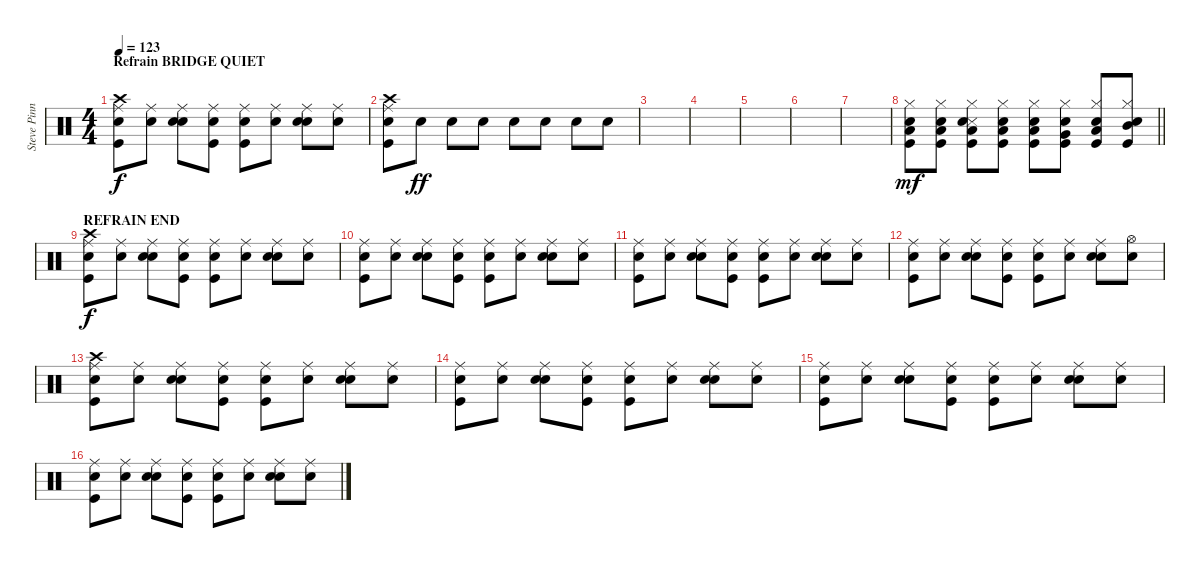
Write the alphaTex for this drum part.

\track ("Steve Pinnell - Drums" "Steve Pinn") {instrument percussion}
\staff {score}
\articulation defaults
\ts (4 4)
\section ("" "Refrain BRIDGE QUIET")
\tempo 123
\clef neutral
\ks c
("Crash high (hit)" "Kick (hit)" "Ride (middle)" "Snare (hit)").8{dy f} ("Ride (middle)" "Snare (hit)").8 ("Metronome (bell)" "Ride (middle)" "Snare (hit)").8 ("Kick (hit)" "Ride (middle)" "Snare (hit)").8 ("Kick (hit)" "Ride (middle)" "Snare (hit)").8 ("Ride (middle)" "Snare (hit)").8 ("Metronome (bell)" "Ride (middle)" "Snare (hit)").8 ("Ride (middle)" "Snare (hit)").8 |
("Crash high (hit)" "Kick (hit)" "Ride (middle)" "Snare (hit)").8{volume 14 balance 8} "Snare (hit)".8{dy ff} "Snare (hit)".8 "Snare (hit)".8 "Snare (hit)".8 "Snare (hit)".8 "Snare (hit)".8 "Snare (hit)".8 |
|
|
|
|
|
\barLineRight lightlight
("Low Floor Tom (hit)" "Kick (hit)" "Hi-Hat (closed)" "Snare (hit)").8{dy mf} ("Low Floor Tom (hit)" "Kick (hit)" "Hi-Hat (closed)" "Snare (hit)").8 ("Snare (side stick) 3" "Low Floor Tom (hit)" "Kick (hit)" "Hi-Hat (closed)" "Snare (hit)").8 ("Low Floor Tom (hit)" "Kick (hit)" "Hi-Hat (closed)" "Snare (hit)").8 ("Low Floor Tom (hit)" "Kick (hit)" "Hi-Hat (closed)" "Snare (hit)").8 ("Very Low Tom (hit)" "Kick (hit)" "Hi-Hat (closed)" "Snare (hit)").8 ("Low Tom (hit)" "Kick (hit)" "Hi-Hat (closed)" "Snare (hit)").8 ("Mid Tom (hit)" "Kick (hit)" "Hi-Hat (closed)" "Snare (hit)").8 |
\section ("" "REFRAIN END")
("Crash high (hit)" "Kick (hit)" "Ride (middle)" "Snare (hit)").8{dy f volume 14 balance 8} ("Ride (middle)" "Snare (hit)").8 ("Metronome (bell)" "Ride (middle)" "Snare (hit)").8 ("Kick (hit)" "Ride (middle)" "Snare (hit)").8 ("Kick (hit)" "Ride (middle)" "Snare (hit)").8 ("Ride (middle)" "Snare (hit)").8 ("Metronome (bell)" "Ride (middle)" "Snare (hit)").8 ("Ride (middle)" "Snare (hit)").8 |
("Kick (hit)" "Ride (middle)" "Snare (hit)").8 ("Ride (middle)" "Snare (hit)").8 ("Metronome (bell)" "Ride (middle)" "Snare (hit)").8 ("Kick (hit)" "Ride (middle)" "Snare (hit)").8 ("Kick (hit)" "Ride (middle)" "Snare (hit)").8 ("Ride (middle)" "Snare (hit)").8 ("Metronome (bell)" "Ride (middle)" "Snare (hit)").8 ("Ride (middle)" "Snare (hit)").8 |
("Kick (hit)" "Ride (middle)" "Snare (hit)").8 ("Ride (middle)" "Snare (hit)").8 ("Metronome (bell)" "Ride (middle)" "Snare (hit)").8 ("Kick (hit)" "Ride (middle)" "Snare (hit)").8 ("Kick (hit)" "Ride (middle)" "Snare (hit)").8 ("Ride (middle)" "Snare (hit)").8 ("Metronome (bell)" "Ride (middle)" "Snare (hit)").8 ("Ride (middle)" "Snare (hit)").8 |
("Kick (hit)" "Ride (middle)" "Snare (hit)").8 ("Ride (middle)" "Snare (hit)").8 ("Metronome (bell)" "Ride (middle)" "Snare (hit)").8 ("Kick (hit)" "Ride (middle)" "Snare (hit)").8 ("Kick (hit)" "Ride (middle)" "Snare (hit)").8 ("Ride (middle)" "Snare (hit)").8 ("Metronome (bell)" "Ride (middle)" "Snare (hit)").8 ("Hi-Hat (open)" "Snare (hit)").8 |
("Crash high (hit)" "Kick (hit)" "Ride (middle)" "Snare (hit)").8 ("Ride (middle)" "Snare (hit)").8 ("Metronome (bell)" "Ride (middle)" "Snare (hit)").8 ("Kick (hit)" "Ride (middle)" "Snare (hit)").8 ("Kick (hit)" "Ride (middle)" "Snare (hit)").8 ("Ride (middle)" "Snare (hit)").8 ("Metronome (bell)" "Ride (middle)" "Snare (hit)").8 ("Ride (middle)" "Snare (hit)").8 |
("Kick (hit)" "Ride (middle)" "Snare (hit)").8 ("Ride (middle)" "Snare (hit)").8 ("Metronome (bell)" "Ride (middle)" "Snare (hit)").8 ("Kick (hit)" "Ride (middle)" "Snare (hit)").8 ("Kick (hit)" "Ride (middle)" "Snare (hit)").8 ("Ride (middle)" "Snare (hit)").8 ("Metronome (bell)" "Ride (middle)" "Snare (hit)").8 ("Ride (middle)" "Snare (hit)").8 |
("Kick (hit)" "Ride (middle)" "Snare (hit)").8 ("Ride (middle)" "Snare (hit)").8 ("Metronome (bell)" "Ride (middle)" "Snare (hit)").8 ("Kick (hit)" "Ride (middle)" "Snare (hit)").8 ("Kick (hit)" "Ride (middle)" "Snare (hit)").8 ("Ride (middle)" "Snare (hit)").8 ("Metronome (bell)" "Ride (middle)" "Snare (hit)").8 ("Ride (middle)" "Snare (hit)").8 |
("Kick (hit)" "Ride (middle)" "Snare (hit)").8 ("Ride (middle)" "Snare (hit)").8 ("Metronome (bell)" "Ride (middle)" "Snare (hit)").8 ("Kick (hit)" "Ride (middle)" "Snare (hit)").8 ("Kick (hit)" "Ride (middle)" "Snare (hit)").8 ("Ride (middle)" "Snare (hit)").8 ("Metronome (bell)" "Ride (middle)" "Snare (hit)").8 ("Ride (middle)" "Snare (hit)").8
